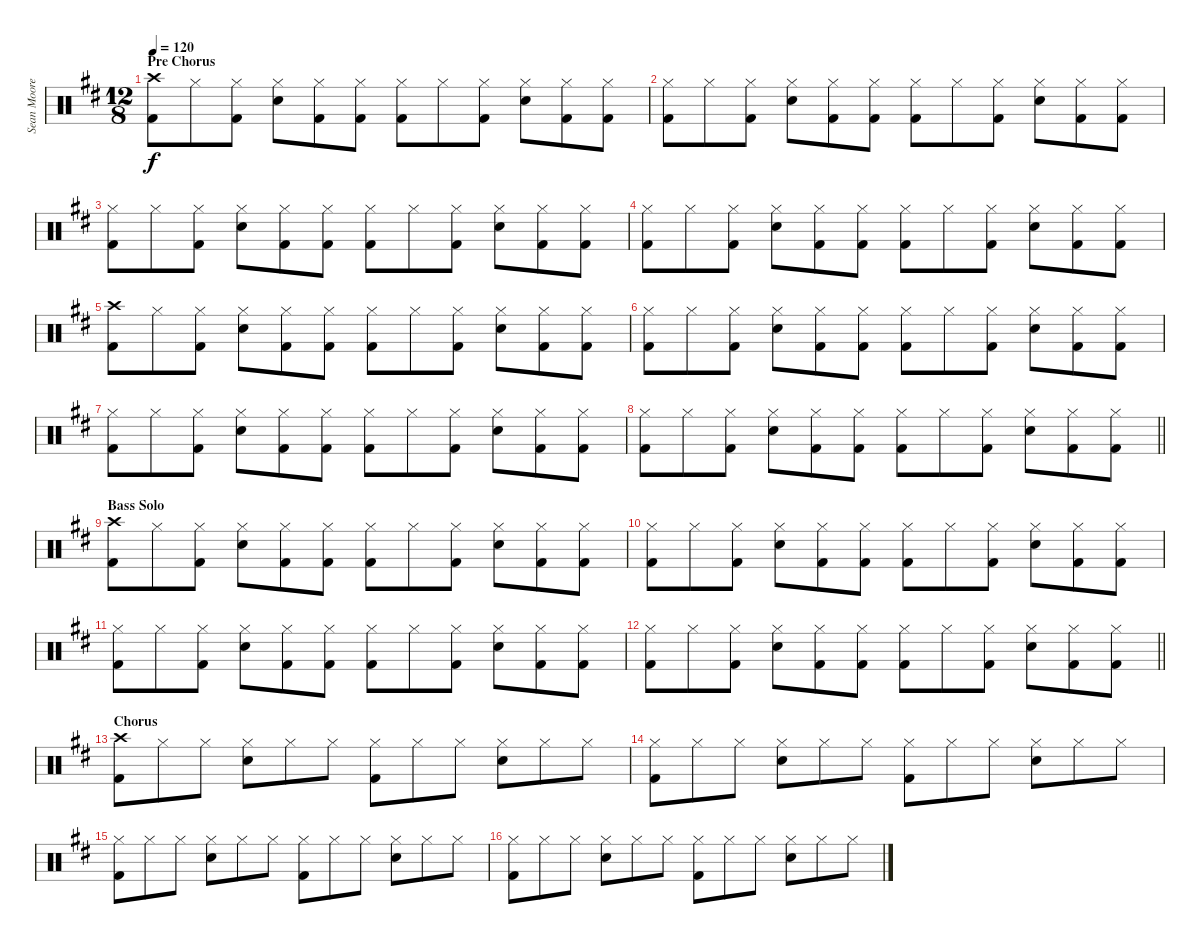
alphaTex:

\track ("Sean Moore (Drums)" "Sean Moore") {instrument percussion}
\staff {score}
\articulation defaults
\ts (12 8)
\section ("" "Pre Chorus")
\tempo 120
\clef neutral
\ks d
("Crash high (hit)" "Kick (hit) 2").8{dy f} "Hi-Hat (closed)".8 ("Hi-Hat (closed)" "Kick (hit) 2").8 ("Hi-Hat (closed)" "Electric Snare (hit)").8 ("Hi-Hat (closed)" "Kick (hit) 2").8 ("Hi-Hat (closed)" "Kick (hit) 2").8 ("Hi-Hat (closed)" "Kick (hit) 2").8 "Hi-Hat (closed)".8 ("Hi-Hat (closed)" "Kick (hit) 2").8 ("Hi-Hat (closed)" "Electric Snare (hit)").8 ("Hi-Hat (closed)" "Kick (hit) 2").8 ("Hi-Hat (closed)" "Kick (hit) 2").8 |
("Hi-Hat (closed)" "Kick (hit) 2").8 "Hi-Hat (closed)".8 ("Hi-Hat (closed)" "Kick (hit) 2").8 ("Hi-Hat (closed)" "Electric Snare (hit)").8 ("Hi-Hat (closed)" "Kick (hit) 2").8 ("Hi-Hat (closed)" "Kick (hit) 2").8 ("Hi-Hat (closed)" "Kick (hit) 2").8 "Hi-Hat (closed)".8 ("Hi-Hat (closed)" "Kick (hit) 2").8 ("Hi-Hat (closed)" "Electric Snare (hit)").8 ("Hi-Hat (closed)" "Kick (hit) 2").8 ("Hi-Hat (closed)" "Kick (hit) 2").8 |
("Hi-Hat (closed)" "Kick (hit) 2").8 "Hi-Hat (closed)".8 ("Hi-Hat (closed)" "Kick (hit) 2").8 ("Hi-Hat (closed)" "Electric Snare (hit)").8 ("Hi-Hat (closed)" "Kick (hit) 2").8 ("Hi-Hat (closed)" "Kick (hit) 2").8 ("Hi-Hat (closed)" "Kick (hit) 2").8 "Hi-Hat (closed)".8 ("Hi-Hat (closed)" "Kick (hit) 2").8 ("Hi-Hat (closed)" "Electric Snare (hit)").8 ("Hi-Hat (closed)" "Kick (hit) 2").8 ("Hi-Hat (closed)" "Kick (hit) 2").8 |
("Hi-Hat (closed)" "Kick (hit) 2").8 "Hi-Hat (closed)".8 ("Hi-Hat (closed)" "Kick (hit) 2").8 ("Hi-Hat (closed)" "Electric Snare (hit)").8 ("Hi-Hat (closed)" "Kick (hit) 2").8 ("Hi-Hat (closed)" "Kick (hit) 2").8 ("Hi-Hat (closed)" "Kick (hit) 2").8 "Hi-Hat (closed)".8 ("Hi-Hat (closed)" "Kick (hit) 2").8 ("Hi-Hat (closed)" "Electric Snare (hit)").8 ("Hi-Hat (closed)" "Kick (hit) 2").8 ("Hi-Hat (closed)" "Kick (hit) 2").8 |
("Crash high (hit)" "Kick (hit) 2").8 "Hi-Hat (closed)".8 ("Hi-Hat (closed)" "Kick (hit) 2").8 ("Hi-Hat (closed)" "Electric Snare (hit)").8 ("Hi-Hat (closed)" "Kick (hit) 2").8 ("Hi-Hat (closed)" "Kick (hit) 2").8 ("Hi-Hat (closed)" "Kick (hit) 2").8 "Hi-Hat (closed)".8 ("Hi-Hat (closed)" "Kick (hit) 2").8 ("Hi-Hat (closed)" "Electric Snare (hit)").8 ("Hi-Hat (closed)" "Kick (hit) 2").8 ("Hi-Hat (closed)" "Kick (hit) 2").8 |
("Hi-Hat (closed)" "Kick (hit) 2").8 "Hi-Hat (closed)".8 ("Hi-Hat (closed)" "Kick (hit) 2").8 ("Hi-Hat (closed)" "Electric Snare (hit)").8 ("Hi-Hat (closed)" "Kick (hit) 2").8 ("Hi-Hat (closed)" "Kick (hit) 2").8 ("Hi-Hat (closed)" "Kick (hit) 2").8 "Hi-Hat (closed)".8 ("Hi-Hat (closed)" "Kick (hit) 2").8 ("Hi-Hat (closed)" "Electric Snare (hit)").8 ("Hi-Hat (closed)" "Kick (hit) 2").8 ("Hi-Hat (closed)" "Kick (hit) 2").8 |
("Hi-Hat (closed)" "Kick (hit) 2").8 "Hi-Hat (closed)".8 ("Hi-Hat (closed)" "Kick (hit) 2").8 ("Hi-Hat (closed)" "Electric Snare (hit)").8 ("Hi-Hat (closed)" "Kick (hit) 2").8 ("Hi-Hat (closed)" "Kick (hit) 2").8 ("Hi-Hat (closed)" "Kick (hit) 2").8 "Hi-Hat (closed)".8 ("Hi-Hat (closed)" "Kick (hit) 2").8 ("Hi-Hat (closed)" "Electric Snare (hit)").8 ("Hi-Hat (closed)" "Kick (hit) 2").8 ("Hi-Hat (closed)" "Kick (hit) 2").8 |
\barLineRight lightlight
("Hi-Hat (closed)" "Kick (hit) 2").8 "Hi-Hat (closed)".8 ("Hi-Hat (closed)" "Kick (hit) 2").8 ("Hi-Hat (closed)" "Electric Snare (hit)").8 ("Hi-Hat (closed)" "Kick (hit) 2").8 ("Hi-Hat (closed)" "Kick (hit) 2").8 ("Hi-Hat (closed)" "Kick (hit) 2").8 "Hi-Hat (closed)".8 ("Hi-Hat (closed)" "Kick (hit) 2").8 ("Hi-Hat (closed)" "Electric Snare (hit)").8 ("Hi-Hat (closed)" "Kick (hit) 2").8 ("Hi-Hat (closed)" "Kick (hit) 2").8 |
\section ("" "Bass Solo")
("Crash high (hit)" "Kick (hit) 2").8 "Hi-Hat (closed)".8 ("Hi-Hat (closed)" "Kick (hit) 2").8 ("Hi-Hat (closed)" "Electric Snare (hit)").8 ("Hi-Hat (closed)" "Kick (hit) 2").8 ("Hi-Hat (closed)" "Kick (hit) 2").8 ("Hi-Hat (closed)" "Kick (hit) 2").8 "Hi-Hat (closed)".8 ("Hi-Hat (closed)" "Kick (hit) 2").8 ("Hi-Hat (closed)" "Electric Snare (hit)").8 ("Hi-Hat (closed)" "Kick (hit) 2").8 ("Hi-Hat (closed)" "Kick (hit) 2").8 |
("Hi-Hat (closed)" "Kick (hit) 2").8 "Hi-Hat (closed)".8 ("Hi-Hat (closed)" "Kick (hit) 2").8 ("Hi-Hat (closed)" "Electric Snare (hit)").8 ("Hi-Hat (closed)" "Kick (hit) 2").8 ("Hi-Hat (closed)" "Kick (hit) 2").8 ("Hi-Hat (closed)" "Kick (hit) 2").8 "Hi-Hat (closed)".8 ("Hi-Hat (closed)" "Kick (hit) 2").8 ("Hi-Hat (closed)" "Electric Snare (hit)").8 ("Hi-Hat (closed)" "Kick (hit) 2").8 ("Hi-Hat (closed)" "Kick (hit) 2").8 |
("Hi-Hat (closed)" "Kick (hit) 2").8 "Hi-Hat (closed)".8 ("Hi-Hat (closed)" "Kick (hit) 2").8 ("Hi-Hat (closed)" "Electric Snare (hit)").8 ("Hi-Hat (closed)" "Kick (hit) 2").8 ("Hi-Hat (closed)" "Kick (hit) 2").8 ("Hi-Hat (closed)" "Kick (hit) 2").8 "Hi-Hat (closed)".8 ("Hi-Hat (closed)" "Kick (hit) 2").8 ("Hi-Hat (closed)" "Electric Snare (hit)").8 ("Hi-Hat (closed)" "Kick (hit) 2").8 ("Hi-Hat (closed)" "Kick (hit) 2").8 |
\barLineRight lightlight
("Hi-Hat (closed)" "Kick (hit) 2").8 "Hi-Hat (closed)".8 ("Hi-Hat (closed)" "Kick (hit) 2").8 ("Hi-Hat (closed)" "Electric Snare (hit)").8 ("Hi-Hat (closed)" "Kick (hit) 2").8 ("Hi-Hat (closed)" "Kick (hit) 2").8 ("Hi-Hat (closed)" "Kick (hit) 2").8 "Hi-Hat (closed)".8 ("Hi-Hat (closed)" "Kick (hit) 2").8 ("Hi-Hat (closed)" "Electric Snare (hit)").8 ("Hi-Hat (closed)" "Kick (hit) 2").8 ("Hi-Hat (closed)" "Kick (hit) 2").8 |
\section ("" "Chorus")
("Crash high (hit)" "Kick (hit) 2").8 "Hi-Hat (closed)".8 "Hi-Hat (closed)".8 ("Hi-Hat (closed)" "Electric Snare (hit)").8 "Hi-Hat (closed)".8 "Hi-Hat (closed)".8 ("Hi-Hat (closed)" "Kick (hit) 2").8 "Hi-Hat (closed)".8 "Hi-Hat (closed)".8 ("Hi-Hat (closed)" "Electric Snare (hit)").8 "Hi-Hat (closed)".8 "Hi-Hat (closed)".8 |
("Hi-Hat (closed)" "Kick (hit) 2").8 "Hi-Hat (closed)".8 "Hi-Hat (closed)".8 ("Hi-Hat (closed)" "Electric Snare (hit)").8 "Hi-Hat (closed)".8 "Hi-Hat (closed)".8 ("Hi-Hat (closed)" "Kick (hit) 2").8 "Hi-Hat (closed)".8 "Hi-Hat (closed)".8 ("Hi-Hat (closed)" "Electric Snare (hit)").8 "Hi-Hat (closed)".8 "Hi-Hat (closed)".8 |
("Hi-Hat (closed)" "Kick (hit) 2").8 "Hi-Hat (closed)".8 "Hi-Hat (closed)".8 ("Hi-Hat (closed)" "Electric Snare (hit)").8 "Hi-Hat (closed)".8 "Hi-Hat (closed)".8 ("Hi-Hat (closed)" "Kick (hit) 2").8 "Hi-Hat (closed)".8 "Hi-Hat (closed)".8 ("Hi-Hat (closed)" "Electric Snare (hit)").8 "Hi-Hat (closed)".8 "Hi-Hat (closed)".8 |
("Hi-Hat (closed)" "Kick (hit) 2").8 "Hi-Hat (closed)".8 "Hi-Hat (closed)".8 ("Hi-Hat (closed)" "Electric Snare (hit)").8 "Hi-Hat (closed)".8 "Hi-Hat (closed)".8 ("Hi-Hat (closed)" "Kick (hit) 2").8 "Hi-Hat (closed)".8 "Hi-Hat (closed)".8 ("Hi-Hat (closed)" "Electric Snare (hit)").8 "Hi-Hat (closed)".8 "Hi-Hat (closed)".8
